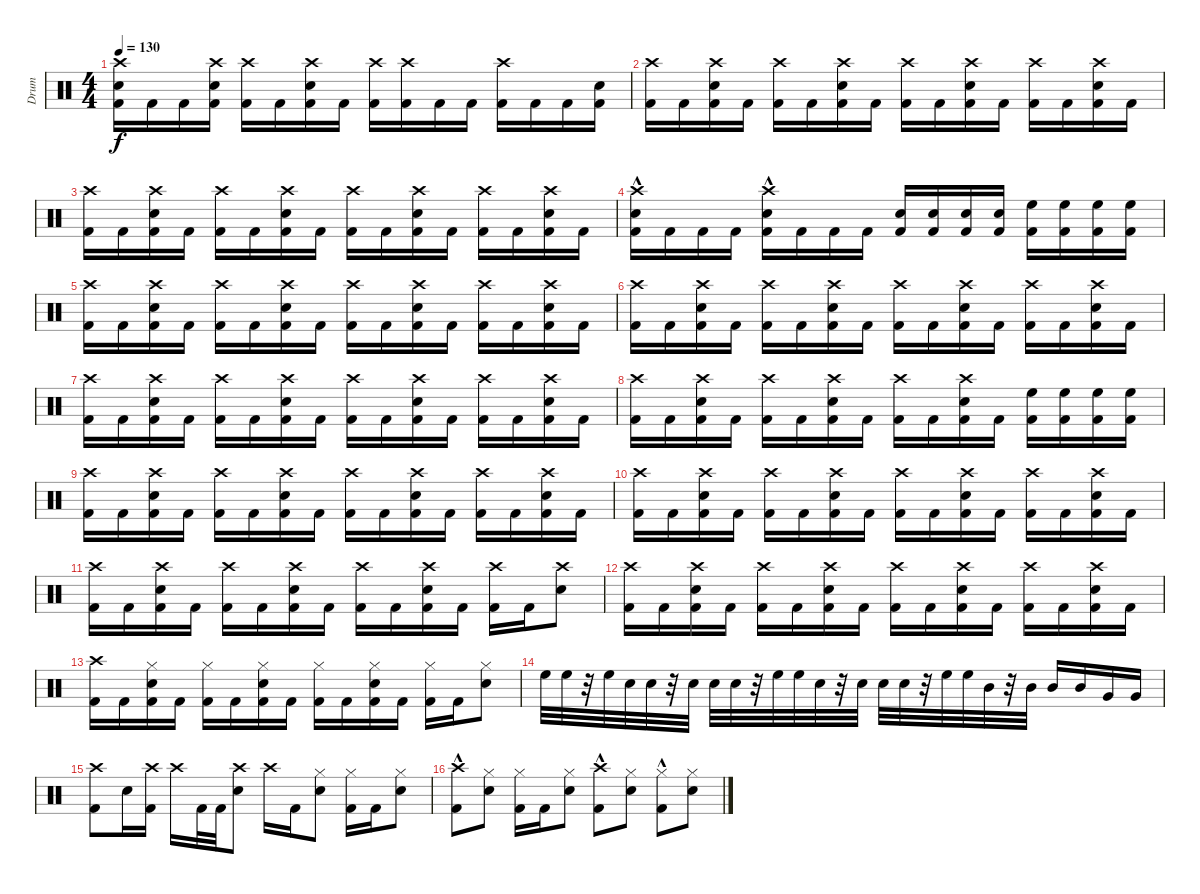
\track ("Drum" "Drum") {instrument percussion}
\staff {score}
\articulation defaults
\ts (4 4)
\tempo 130
\clef neutral
\ks c
("Kick (hit) 2" "Snare (hit) 2" "Crash high (hit)").16{dy f} "Kick (hit) 2".16 "Kick (hit) 2".16 ("Kick (hit) 2" "Crash high (hit)" "Snare (hit) 2").16 ("Kick (hit) 2" "Crash high (hit)").16 "Kick (hit) 2".16 ("Kick (hit) 2" "Crash high (hit)" "Snare (hit) 2").16 "Kick (hit) 2".16 ("Kick (hit) 2" "Crash high (hit)").16 ("Kick (hit) 2" "Crash high (hit)").16 "Kick (hit) 2".16 "Kick (hit) 2".16 ("Kick (hit) 2" "Crash high (hit)").16 "Kick (hit) 2".16 "Kick (hit) 2".16 ("Kick (hit) 2" "Snare (hit) 2").16 |
("Kick (hit) 2" "Crash high (hit)").16 "Kick (hit) 2".16 ("Kick (hit) 2" "Crash high (hit)" "Snare (hit) 2").16 "Kick (hit) 2".16 ("Kick (hit) 2" "Crash high (hit)").16 "Kick (hit) 2".16 ("Kick (hit) 2" "Crash high (hit)" "Snare (hit) 2").16 "Kick (hit) 2".16 ("Kick (hit) 2" "Crash high (hit)").16 "Kick (hit) 2".16 ("Kick (hit) 2" "Crash high (hit)" "Snare (hit) 2").16 "Kick (hit) 2".16 ("Kick (hit) 2" "Crash high (hit)").16 "Kick (hit) 2".16 ("Kick (hit) 2" "Crash high (hit)" "Snare (hit) 2").16 "Kick (hit) 2".16 |
("Kick (hit) 2" "Crash high (hit)").16 "Kick (hit) 2".16 ("Kick (hit) 2" "Crash high (hit)" "Snare (hit) 2").16 "Kick (hit) 2".16 ("Kick (hit) 2" "Crash high (hit)").16 "Kick (hit) 2".16 ("Kick (hit) 2" "Crash high (hit)" "Snare (hit) 2").16 "Kick (hit) 2".16 ("Kick (hit) 2" "Crash high (hit)").16 "Kick (hit) 2".16 ("Kick (hit) 2" "Crash high (hit)" "Snare (hit) 2").16 "Kick (hit) 2".16 ("Kick (hit) 2" "Crash high (hit)").16 "Kick (hit) 2".16 ("Kick (hit) 2" "Crash high (hit)" "Snare (hit) 2").16 "Kick (hit) 2".16 |
("Kick (hit) 2" "Crash high (hit)"{hac} "Snare (hit) 2"{hac}).16 "Kick (hit) 2".16 "Kick (hit) 2".16 "Kick (hit) 2".16 ("Kick (hit) 2" "Crash high (hit)"{hac} "Snare (hit) 2"{hac}).16 "Kick (hit) 2".16 "Kick (hit) 2".16 "Kick (hit) 2".16 ("Kick (hit) 2" "Snare (hit) 2").16 ("Kick (hit) 2" "Snare (hit) 2").16 ("Kick (hit) 2" "Snare (hit) 2").16 ("Kick (hit) 2" "Snare (hit) 2").16 ("Kick (hit) 2" "High Floor Tom (hit)").16 ("Kick (hit) 2" "High Floor Tom (hit)").16 ("Kick (hit) 2" "High Floor Tom (hit)").16 ("Kick (hit) 2" "High Floor Tom (hit)").16 |
("Kick (hit) 2" "Crash high (hit)").16 "Kick (hit) 2".16 ("Kick (hit) 2" "Crash high (hit)" "Snare (hit) 2").16 "Kick (hit) 2".16 ("Kick (hit) 2" "Crash high (hit)").16 "Kick (hit) 2".16 ("Kick (hit) 2" "Crash high (hit)" "Snare (hit) 2").16 "Kick (hit) 2".16 ("Kick (hit) 2" "Crash high (hit)").16 "Kick (hit) 2".16 ("Kick (hit) 2" "Crash high (hit)" "Snare (hit) 2").16 "Kick (hit) 2".16 ("Kick (hit) 2" "Crash high (hit)").16 "Kick (hit) 2".16 ("Kick (hit) 2" "Crash high (hit)" "Snare (hit) 2").16 "Kick (hit) 2".16 |
("Kick (hit) 2" "Crash high (hit)").16 "Kick (hit) 2".16 ("Kick (hit) 2" "Crash high (hit)" "Snare (hit) 2").16 "Kick (hit) 2".16 ("Kick (hit) 2" "Crash high (hit)").16 "Kick (hit) 2".16 ("Kick (hit) 2" "Crash high (hit)" "Snare (hit) 2").16 "Kick (hit) 2".16 ("Kick (hit) 2" "Crash high (hit)").16 "Kick (hit) 2".16 ("Kick (hit) 2" "Crash high (hit)" "Snare (hit) 2").16 "Kick (hit) 2".16 ("Kick (hit) 2" "Crash high (hit)").16 "Kick (hit) 2".16 ("Kick (hit) 2" "Crash high (hit)" "Snare (hit) 2").16 "Kick (hit) 2".16 |
("Kick (hit) 2" "Crash high (hit)").16 "Kick (hit) 2".16 ("Kick (hit) 2" "Crash high (hit)" "Snare (hit) 2").16 "Kick (hit) 2".16 ("Kick (hit) 2" "Crash high (hit)").16 "Kick (hit) 2".16 ("Kick (hit) 2" "Crash high (hit)" "Snare (hit) 2").16 "Kick (hit) 2".16 ("Kick (hit) 2" "Crash high (hit)").16 "Kick (hit) 2".16 ("Kick (hit) 2" "Crash high (hit)" "Snare (hit) 2").16 "Kick (hit) 2".16 ("Kick (hit) 2" "Crash high (hit)").16 "Kick (hit) 2".16 ("Kick (hit) 2" "Crash high (hit)" "Snare (hit) 2").16 "Kick (hit) 2".16 |
("Kick (hit) 2" "Crash high (hit)").16 "Kick (hit) 2".16 ("Kick (hit) 2" "Crash high (hit)" "Snare (hit) 2").16 "Kick (hit) 2".16 ("Kick (hit) 2" "Crash high (hit)").16 "Kick (hit) 2".16 ("Kick (hit) 2" "Crash high (hit)" "Snare (hit) 2").16 "Kick (hit) 2".16 ("Kick (hit) 2" "Crash high (hit)").16 "Kick (hit) 2".16 ("Kick (hit) 2" "Crash high (hit)" "Snare (hit) 2").16 "Kick (hit) 2".16 ("Kick (hit) 2" "High Floor Tom (hit)").16 ("Kick (hit) 2" "High Floor Tom (hit)").16 ("Kick (hit) 2" "High Floor Tom (hit)").16 ("Kick (hit) 2" "High Floor Tom (hit)").16 |
("Kick (hit) 2" "Crash high (hit)").16 "Kick (hit) 2".16 ("Kick (hit) 2" "Crash high (hit)" "Snare (hit) 2").16 "Kick (hit) 2".16 ("Kick (hit) 2" "Crash high (hit)").16 "Kick (hit) 2".16 ("Kick (hit) 2" "Crash high (hit)" "Snare (hit) 2").16 "Kick (hit) 2".16 ("Kick (hit) 2" "Crash high (hit)").16 "Kick (hit) 2".16 ("Kick (hit) 2" "Crash high (hit)" "Snare (hit) 2").16 "Kick (hit) 2".16 ("Kick (hit) 2" "Crash high (hit)").16 "Kick (hit) 2".16 ("Kick (hit) 2" "Crash high (hit)" "Snare (hit) 2").16 "Kick (hit) 2".16 |
("Kick (hit) 2" "Crash high (hit)").16 "Kick (hit) 2".16 ("Kick (hit) 2" "Crash high (hit)" "Snare (hit) 2").16 "Kick (hit) 2".16 ("Kick (hit) 2" "Crash high (hit)").16 "Kick (hit) 2".16 ("Kick (hit) 2" "Crash high (hit)" "Snare (hit) 2").16 "Kick (hit) 2".16 ("Kick (hit) 2" "Crash high (hit)").16 "Kick (hit) 2".16 ("Kick (hit) 2" "Crash high (hit)" "Snare (hit) 2").16 "Kick (hit) 2".16 ("Kick (hit) 2" "Crash high (hit)").16 "Kick (hit) 2".16 ("Kick (hit) 2" "Crash high (hit)" "Snare (hit) 2").16 "Kick (hit) 2".16 |
("Kick (hit) 2" "Crash high (hit)").16 "Kick (hit) 2".16 ("Kick (hit) 2" "Crash high (hit)" "Snare (hit) 2").16 "Kick (hit) 2".16 ("Kick (hit) 2" "Crash high (hit)").16 "Kick (hit) 2".16 ("Kick (hit) 2" "Crash high (hit)" "Snare (hit) 2").16 "Kick (hit) 2".16 ("Kick (hit) 2" "Crash high (hit)").16 "Kick (hit) 2".16 ("Kick (hit) 2" "Crash high (hit)" "Snare (hit) 2").16 "Kick (hit) 2".16 ("Kick (hit) 2" "Crash high (hit)").16 "Kick (hit) 2".16 ("Crash high (hit)" "Snare (hit) 2").8 |
("Crash high (hit)" "Kick (hit) 2").16 "Kick (hit) 2".16 ("Crash high (hit)" "Snare (hit) 2" "Kick (hit) 2").16 "Kick (hit) 2".16 ("Crash high (hit)" "Kick (hit) 2").16 "Kick (hit) 2".16 ("Crash high (hit)" "Snare (hit) 2" "Kick (hit) 2").16 "Kick (hit) 2".16 ("Crash high (hit)" "Kick (hit) 2").16 "Kick (hit) 2".16 ("Crash high (hit)" "Snare (hit) 2" "Kick (hit) 2").16 "Kick (hit) 2".16 ("Crash high (hit)" "Kick (hit) 2").16 "Kick (hit) 2".16 ("Crash high (hit)" "Snare (hit) 2" "Kick (hit) 2").16 "Kick (hit) 2".16 |
("Crash high (hit)" "Kick (hit) 2").16 "Kick (hit) 2".16 ("Hi-Hat (closed)" "Snare (hit) 2" "Kick (hit) 2").16 "Kick (hit) 2".16 ("Hi-Hat (closed)" "Kick (hit) 2").16 "Kick (hit) 2".16 ("Hi-Hat (closed)" "Snare (hit) 2" "Kick (hit) 2").16 "Kick (hit) 2".16 ("Hi-Hat (closed)" "Kick (hit) 2").16 "Kick (hit) 2".16 ("Hi-Hat (closed)" "Snare (hit) 2" "Kick (hit) 2").16 "Kick (hit) 2".16 ("Hi-Hat (closed)" "Kick (hit) 2").16 "Kick (hit) 2".16 ("Hi-Hat (closed)" "Snare (hit) 2").8 |
"High Floor Tom (hit)".32 "High Floor Tom (hit)".32 r.32 "High Floor Tom (hit)".32 "Snare (hit) 2".32 "Snare (hit) 2".32 r.32 "Snare (hit) 2".32 "Snare (hit) 2".32 "Snare (hit) 2".32 r.32 "High Floor Tom (hit)".32 "High Floor Tom (hit)".32 "Snare (hit) 2".32 r.32 "Snare (hit) 2".32 "Snare (hit) 2".32 "Snare (hit) 2".32 r.32 "High Floor Tom (hit)".32 "High Floor Tom (hit)".32 "Mid Tom (hit)".32 r.32 "Mid Tom (hit)".32 "Mid Tom (hit)".16 "Mid Tom (hit)".16 "Very Low Tom (hit)".16 "Very Low Tom (hit)".16 |
("Crash high (hit)" "Kick (hit) 2").8 "Snare (hit) 2".16 ("Crash high (hit)" "Kick (hit) 2").16 "Crash high (hit)".16 "Kick (hit) 2".32 "Kick (hit) 2".32 ("Crash high (hit)" "Snare (hit) 2").8 "Crash high (hit)".16 "Kick (hit) 2".16 ("Hi-Hat (closed)" "Snare (hit) 2").8 ("Hi-Hat (closed)" "Kick (hit) 2").16 "Kick (hit) 2".16 ("Hi-Hat (closed)" "Snare (hit) 2").8 |
("Crash high (hit)" "Kick (hit) 2"{hac}).8 ("Hi-Hat (closed)" "Snare (hit) 2").8 ("Hi-Hat (closed)" "Kick (hit) 2").16 "Kick (hit) 2".16 ("Hi-Hat (closed)" "Snare (hit) 2").8 ("Crash high (hit)" "Kick (hit) 2"{hac}).8 ("Hi-Hat (closed)" "Snare (hit) 2").8 ("Hi-Hat (closed)" "Kick (hit) 2"{hac}).8 ("Hi-Hat (closed)" "Snare (hit) 2").8
